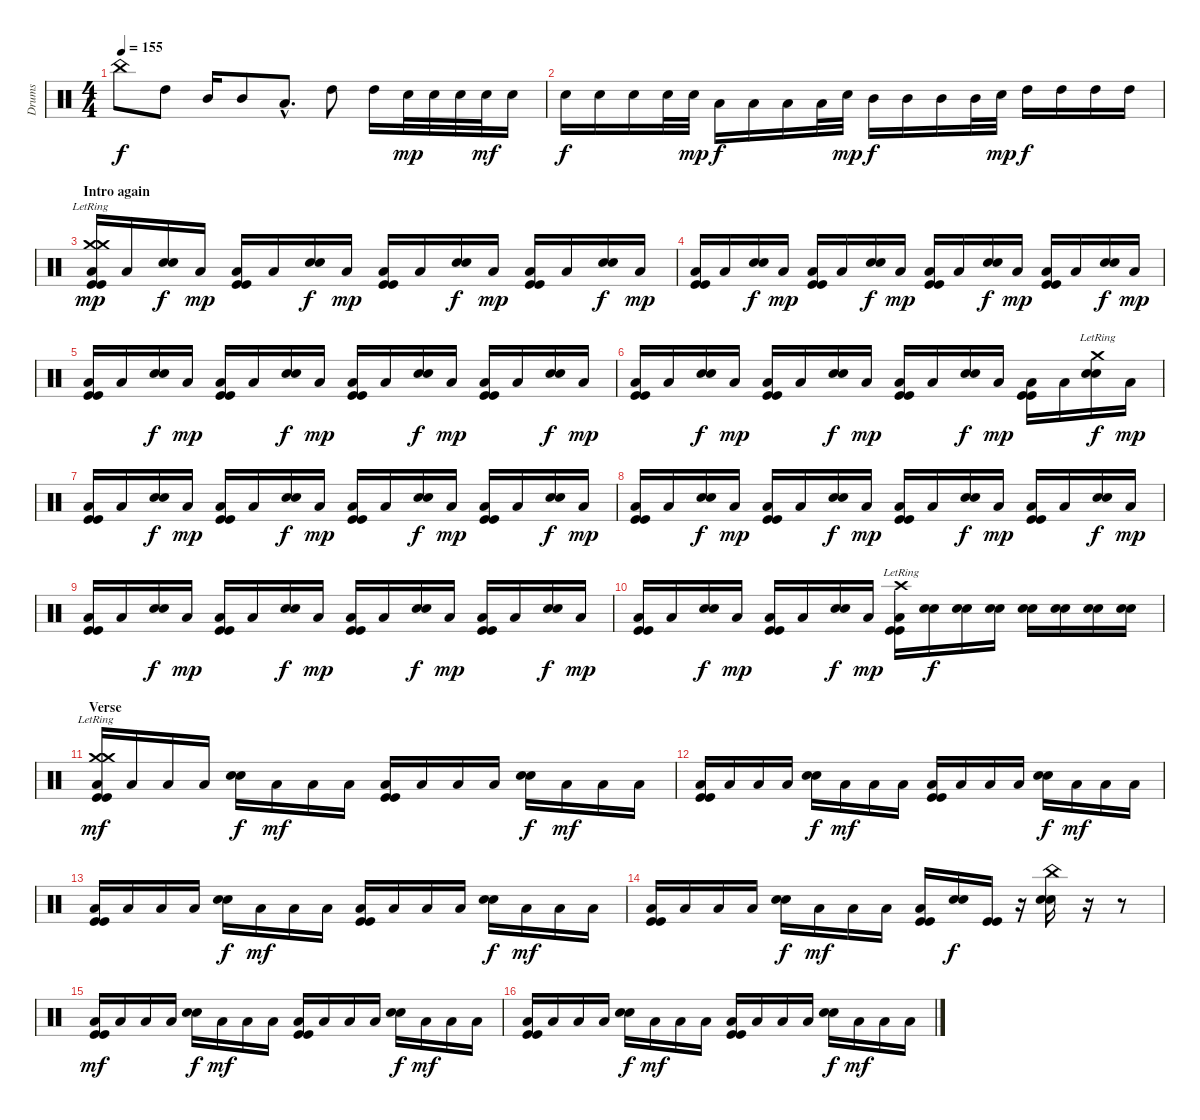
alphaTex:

\track ("Drums" "Drums") {instrument percussion}
\staff {score}
\articulation defaults
\ts (4 4)
\tempo 155
\clef neutral
\ks c "China (hit)".8{dy f volume 14} "High Tom (hit)".8 "Mid Tom (hit)".16 "Mid Tom (hit)".8 "Low Tom (hit)"{hac}.8{d} "High Tom (hit)".8 "High Tom (hit)".16 "Snare (hit) 2".32{dy mp} "Snare (hit) 2".32 "Snare (hit) 2".32 "Snare (hit) 2".32{dy mf} "Snare (hit) 2".16
|
"Snare (hit) 2".16{dy f} "Snare (hit) 2".16 "Snare (hit) 2".16 "Snare (hit) 2".32 "Snare (hit) 2".32{dy mp} "Low Tom (hit)".16{dy f} "Low Tom (hit)".16 "Low Tom (hit)".16 "Low Tom (hit)".32 "Snare (hit) 2".32{dy mp} "Mid Tom (hit)".16{dy f} "Mid Tom (hit)".16 "Mid Tom (hit)".16 "Mid Tom (hit)".32 "Snare (hit) 2".32{dy mp} "High Tom (hit)".16{dy f} "High Tom (hit)".16 "High Tom (hit)".16 "High Tom (hit)".16 |
\section ("" "Intro again")
("Crash medium (hit)"{lr} "Crash medium (hit)"{lr} "Low Tom (hit)" "Kick (hit)" "Kick (hit)").16{dy mp volume 12} "Low Tom (hit)".16 ("Snare (hit) 2" "Snare (hit) 2").16{dy f} "Low Tom (hit)".16{dy mp} ("Low Tom (hit)" "Kick (hit)" "Kick (hit)").16 "Low Tom (hit)".16 ("Snare (hit) 2" "Snare (hit) 2").16{dy f} "Low Tom (hit)".16{dy mp} ("Low Tom (hit)" "Kick (hit)" "Kick (hit)").16 "Low Tom (hit)".16 ("Snare (hit) 2" "Snare (hit) 2").16{dy f} "Low Tom (hit)".16{dy mp} ("Low Tom (hit)" "Kick (hit)" "Kick (hit)").16 "Low Tom (hit)".16 ("Snare (hit) 2" "Snare (hit) 2").16{dy f} "Low Tom (hit)".16{dy mp} |
("Low Tom (hit)" "Kick (hit)" "Kick (hit)").16 "Low Tom (hit)".16 ("Snare (hit) 2" "Snare (hit) 2").16{dy f} "Low Tom (hit)".16{dy mp} ("Low Tom (hit)" "Kick (hit)" "Kick (hit)").16 "Low Tom (hit)".16 ("Snare (hit) 2" "Snare (hit) 2").16{dy f} "Low Tom (hit)".16{dy mp} ("Low Tom (hit)" "Kick (hit)" "Kick (hit)").16 "Low Tom (hit)".16 ("Snare (hit) 2" "Snare (hit) 2").16{dy f} "Low Tom (hit)".16{dy mp} ("Low Tom (hit)" "Kick (hit)" "Kick (hit)").16 "Low Tom (hit)".16 ("Snare (hit) 2" "Snare (hit) 2").16{dy f} "Low Tom (hit)".16{dy mp} |
("Low Tom (hit)" "Kick (hit)" "Kick (hit)").16 "Low Tom (hit)".16 ("Snare (hit) 2" "Snare (hit) 2").16{dy f} "Low Tom (hit)".16{dy mp} ("Low Tom (hit)" "Kick (hit)" "Kick (hit)").16 "Low Tom (hit)".16 ("Snare (hit) 2" "Snare (hit) 2").16{dy f} "Low Tom (hit)".16{dy mp} ("Low Tom (hit)" "Kick (hit)" "Kick (hit)").16 "Low Tom (hit)".16 ("Snare (hit) 2" "Snare (hit) 2").16{dy f} "Low Tom (hit)".16{dy mp} ("Low Tom (hit)" "Kick (hit)" "Kick (hit)").16 "Low Tom (hit)".16 ("Snare (hit) 2" "Snare (hit) 2").16{dy f} "Low Tom (hit)".16{dy mp} |
("Low Tom (hit)" "Kick (hit)" "Kick (hit)").16 "Low Tom (hit)".16 ("Snare (hit) 2" "Snare (hit) 2").16{dy f} "Low Tom (hit)".16{dy mp} ("Low Tom (hit)" "Kick (hit)" "Kick (hit)").16 "Low Tom (hit)".16 ("Snare (hit) 2" "Snare (hit) 2").16{dy f} "Low Tom (hit)".16{dy mp} ("Low Tom (hit)" "Kick (hit)" "Kick (hit)").16 "Low Tom (hit)".16 ("Snare (hit) 2" "Snare (hit) 2").16{dy f} "Low Tom (hit)".16{dy mp} ("Low Tom (hit)" "Kick (hit)" "Kick (hit)").16 "Low Tom (hit)".16 ("Crash medium (hit)"{lr} "Snare (hit) 2" "Snare (hit) 2").16{dy f} "Low Tom (hit)".16{dy mp} |
("Low Tom (hit)" "Kick (hit)" "Kick (hit)").16 "Low Tom (hit)".16 ("Snare (hit) 2" "Snare (hit) 2").16{dy f} "Low Tom (hit)".16{dy mp} ("Low Tom (hit)" "Kick (hit)" "Kick (hit)").16 "Low Tom (hit)".16 ("Snare (hit) 2" "Snare (hit) 2").16{dy f} "Low Tom (hit)".16{dy mp} ("Low Tom (hit)" "Kick (hit)" "Kick (hit)").16 "Low Tom (hit)".16 ("Snare (hit) 2" "Snare (hit) 2").16{dy f} "Low Tom (hit)".16{dy mp} ("Low Tom (hit)" "Kick (hit)" "Kick (hit)").16 "Low Tom (hit)".16 ("Snare (hit) 2" "Snare (hit) 2").16{dy f} "Low Tom (hit)".16{dy mp} |
("Low Tom (hit)" "Kick (hit)" "Kick (hit)").16 "Low Tom (hit)".16 ("Snare (hit) 2" "Snare (hit) 2").16{dy f} "Low Tom (hit)".16{dy mp} ("Low Tom (hit)" "Kick (hit)" "Kick (hit)").16 "Low Tom (hit)".16 ("Snare (hit) 2" "Snare (hit) 2").16{dy f} "Low Tom (hit)".16{dy mp} ("Low Tom (hit)" "Kick (hit)" "Kick (hit)").16 "Low Tom (hit)".16 ("Snare (hit) 2" "Snare (hit) 2").16{dy f} "Low Tom (hit)".16{dy mp} ("Low Tom (hit)" "Kick (hit)" "Kick (hit)").16 "Low Tom (hit)".16 ("Snare (hit) 2" "Snare (hit) 2").16{dy f} "Low Tom (hit)".16{dy mp} |
("Low Tom (hit)" "Kick (hit)" "Kick (hit)").16 "Low Tom (hit)".16 ("Snare (hit) 2" "Snare (hit) 2").16{dy f} "Low Tom (hit)".16{dy mp} ("Low Tom (hit)" "Kick (hit)" "Kick (hit)").16 "Low Tom (hit)".16 ("Snare (hit) 2" "Snare (hit) 2").16{dy f} "Low Tom (hit)".16{dy mp} ("Low Tom (hit)" "Kick (hit)" "Kick (hit)").16 "Low Tom (hit)".16 ("Snare (hit) 2" "Snare (hit) 2").16{dy f} "Low Tom (hit)".16{dy mp} ("Low Tom (hit)" "Kick (hit)" "Kick (hit)").16 "Low Tom (hit)".16 ("Snare (hit) 2" "Snare (hit) 2").16{dy f} "Low Tom (hit)".16{dy mp} |
("Low Tom (hit)" "Kick (hit)" "Kick (hit)").16 "Low Tom (hit)".16 ("Snare (hit) 2" "Snare (hit) 2").16{dy f} "Low Tom (hit)".16{dy mp} ("Low Tom (hit)" "Kick (hit)" "Kick (hit)").16 "Low Tom (hit)".16 ("Snare (hit) 2" "Snare (hit) 2").16{dy f} "Low Tom (hit)".16{dy mp} ("Crash high (hit)"{lr} "Low Tom (hit)" "Kick (hit)" "Kick (hit)").16 ("Snare (hit) 2" "Snare (hit) 2").16{dy f} ("Snare (hit) 2" "Snare (hit) 2").16 ("Snare (hit) 2" "Snare (hit) 2").16 ("Snare (hit) 2" "Snare (hit) 2").16 ("Snare (hit) 2" "Snare (hit) 2").16 ("Snare (hit) 2" "Snare (hit) 2").16 ("Snare (hit) 2" "Snare (hit) 2").16 |
\section ("" "Verse")
("Crash medium (hit)"{lr} "Crash medium (hit)"{lr} "Low Tom (hit)" "Kick (hit)" "Kick (hit)").16{dy mf} "Low Tom (hit)".16 "Low Tom (hit)".16 "Low Tom (hit)".16 ("Snare (hit) 2" "Snare (hit) 2").16{dy f} "Low Tom (hit)".16{dy mf} "Low Tom (hit)".16 "Low Tom (hit)".16 ("Low Tom (hit)" "Kick (hit)" "Kick (hit)").16 "Low Tom (hit)".16 "Low Tom (hit)".16 "Low Tom (hit)".16 ("Snare (hit) 2" "Snare (hit) 2").16{dy f} "Low Tom (hit)".16{dy mf} "Low Tom (hit)".16 "Low Tom (hit)".16 |
("Low Tom (hit)" "Kick (hit)" "Kick (hit)").16 "Low Tom (hit)".16 "Low Tom (hit)".16 "Low Tom (hit)".16 ("Snare (hit) 2" "Snare (hit) 2").16{dy f} "Low Tom (hit)".16{dy mf} "Low Tom (hit)".16 "Low Tom (hit)".16 ("Low Tom (hit)" "Kick (hit)" "Kick (hit)").16 "Low Tom (hit)".16 "Low Tom (hit)".16 "Low Tom (hit)".16 ("Snare (hit) 2" "Snare (hit) 2").16{dy f} "Low Tom (hit)".16{dy mf} "Low Tom (hit)".16 "Low Tom (hit)".16 |
("Low Tom (hit)" "Kick (hit)" "Kick (hit)").16 "Low Tom (hit)".16 "Low Tom (hit)".16 "Low Tom (hit)".16 ("Snare (hit) 2" "Snare (hit) 2").16{dy f} "Low Tom (hit)".16{dy mf} "Low Tom (hit)".16 "Low Tom (hit)".16 ("Low Tom (hit)" "Kick (hit)" "Kick (hit)").16 "Low Tom (hit)".16 "Low Tom (hit)".16 "Low Tom (hit)".16 ("Snare (hit) 2" "Snare (hit) 2").16{dy f} "Low Tom (hit)".16{dy mf} "Low Tom (hit)".16 "Low Tom (hit)".16 |
("Low Tom (hit)" "Kick (hit)" "Kick (hit)").16 "Low Tom (hit)".16 "Low Tom (hit)".16 "Low Tom (hit)".16 ("Snare (hit) 2" "Snare (hit) 2").16{dy f} "Low Tom (hit)".16{dy mf} "Low Tom (hit)".16 "Low Tom (hit)".16 ("Low Tom (hit)" "Kick (hit)" "Kick (hit)").16 ("Snare (hit) 2" "Snare (hit) 2").16{dy f} ("Kick (hit)" "Kick (hit)").16 r.16 ("China (hit)" "Snare (hit) 2" "Snare (hit) 2").16 r.16 r.8 |
("Low Tom (hit)" "Kick (hit)" "Kick (hit)").16{dy mf} "Low Tom (hit)".16 "Low Tom (hit)".16 "Low Tom (hit)".16 ("Snare (hit) 2" "Snare (hit) 2").16{dy f} "Low Tom (hit)".16{dy mf} "Low Tom (hit)".16 "Low Tom (hit)".16 ("Low Tom (hit)" "Kick (hit)" "Kick (hit)").16 "Low Tom (hit)".16 "Low Tom (hit)".16 "Low Tom (hit)".16 ("Snare (hit) 2" "Snare (hit) 2").16{dy f} "Low Tom (hit)".16{dy mf} "Low Tom (hit)".16 "Low Tom (hit)".16 |
("Low Tom (hit)" "Kick (hit)" "Kick (hit)").16 "Low Tom (hit)".16 "Low Tom (hit)".16 "Low Tom (hit)".16 ("Snare (hit) 2" "Snare (hit) 2").16{dy f} "Low Tom (hit)".16{dy mf} "Low Tom (hit)".16 "Low Tom (hit)".16 ("Low Tom (hit)" "Kick (hit)" "Kick (hit)").16 "Low Tom (hit)".16 "Low Tom (hit)".16 "Low Tom (hit)".16 ("Snare (hit) 2" "Snare (hit) 2").16{dy f} "Low Tom (hit)".16{dy mf} "Low Tom (hit)".16 "Low Tom (hit)".16
